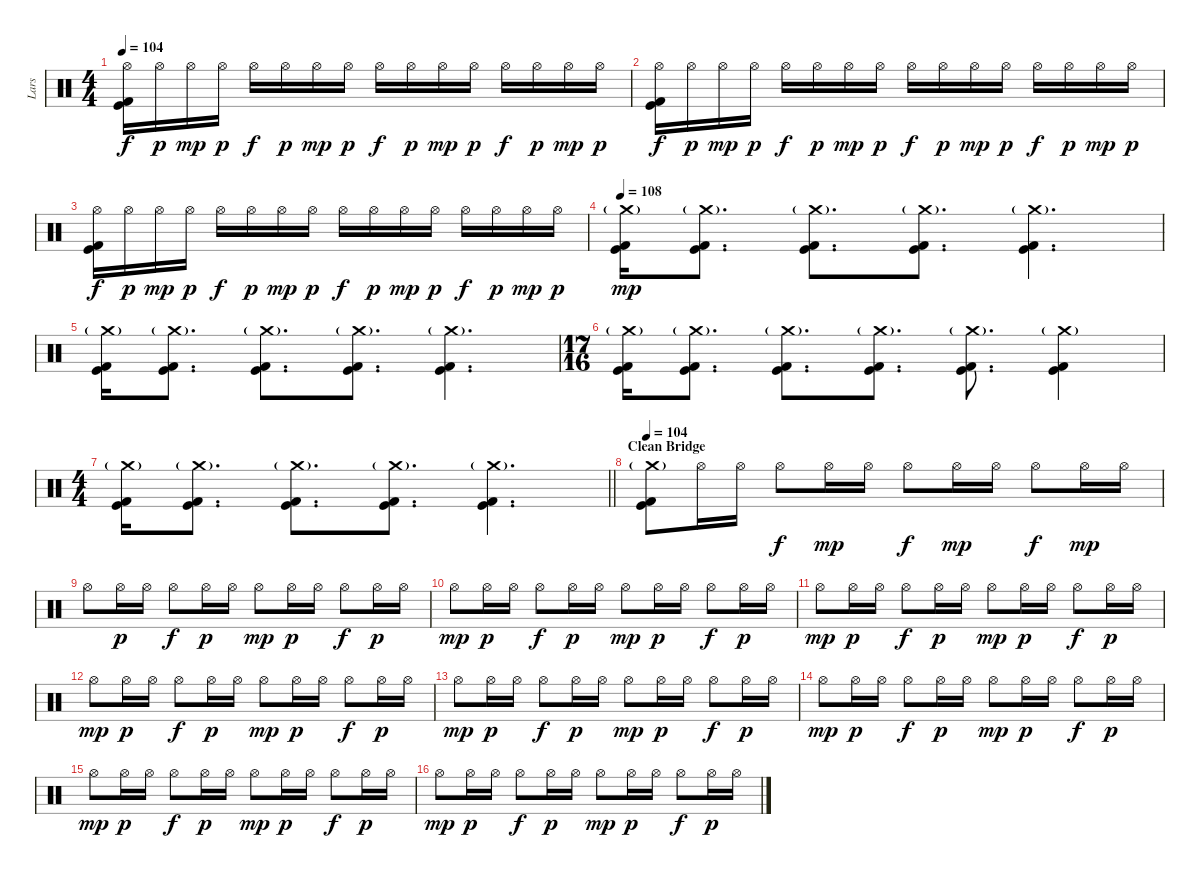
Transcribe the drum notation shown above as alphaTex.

\track ("Lars" "Lars") {instrument percussion}
\staff {score}
\articulation defaults
\ts (4 4)
\tempo 104
\clef neutral
\ks c
("Hi-Hat (open)" "Kick (hit)" "Kick (hit) 2").16{dy f} "Hi-Hat (open)".16{dy p} "Hi-Hat (open)".16{dy mp} "Hi-Hat (open)".16{dy p} "Hi-Hat (open)".16{dy f} "Hi-Hat (open)".16{dy p} "Hi-Hat (open)".16{dy mp} "Hi-Hat (open)".16{dy p} "Hi-Hat (open)".16{dy f} "Hi-Hat (open)".16{dy p} "Hi-Hat (open)".16{dy mp} "Hi-Hat (open)".16{dy p} "Hi-Hat (open)".16{dy f} "Hi-Hat (open)".16{dy p} "Hi-Hat (open)".16{dy mp} "Hi-Hat (open)".16{dy p} |
("Hi-Hat (open)" "Kick (hit)" "Kick (hit) 2").16{dy f} "Hi-Hat (open)".16{dy p} "Hi-Hat (open)".16{dy mp} "Hi-Hat (open)".16{dy p} "Hi-Hat (open)".16{dy f} "Hi-Hat (open)".16{dy p} "Hi-Hat (open)".16{dy mp} "Hi-Hat (open)".16{dy p} "Hi-Hat (open)".16{dy f} "Hi-Hat (open)".16{dy p} "Hi-Hat (open)".16{dy mp} "Hi-Hat (open)".16{dy p} "Hi-Hat (open)".16{dy f} "Hi-Hat (open)".16{dy p} "Hi-Hat (open)".16{dy mp} "Hi-Hat (open)".16{dy p} |
("Hi-Hat (open)" "Kick (hit)" "Kick (hit) 2").16{dy f} "Hi-Hat (open)".16{dy p} "Hi-Hat (open)".16{dy mp} "Hi-Hat (open)".16{dy p} "Hi-Hat (open)".16{dy f} "Hi-Hat (open)".16{dy p} "Hi-Hat (open)".16{dy mp} "Hi-Hat (open)".16{dy p} "Hi-Hat (open)".16{dy f} "Hi-Hat (open)".16{dy p} "Hi-Hat (open)".16{dy mp} "Hi-Hat (open)".16{dy p} "Hi-Hat (open)".16{dy f} "Hi-Hat (open)".16{dy p} "Hi-Hat (open)".16{dy mp} "Hi-Hat (open)".16{dy p} |
\tempo 108
("Crash medium (hit)"{g} "Kick (hit)" "Kick (hit) 2").16{dy mp} ("Crash medium (hit)"{g} "Kick (hit)" "Kick (hit) 2").8{d} ("Crash medium (hit)"{g} "Kick (hit)" "Kick (hit) 2").8{d} ("Crash medium (hit)"{g} "Kick (hit)" "Kick (hit) 2").8{d} ("Crash medium (hit)"{g} "Kick (hit)" "Kick (hit) 2").4{d} |
("Crash medium (hit)"{g} "Kick (hit)" "Kick (hit) 2").16 ("Crash medium (hit)"{g} "Kick (hit)" "Kick (hit) 2").8{d} ("Crash medium (hit)"{g} "Kick (hit)" "Kick (hit) 2").8{d} ("Crash medium (hit)"{g} "Kick (hit)" "Kick (hit) 2").8{d} ("Crash medium (hit)"{g} "Kick (hit)" "Kick (hit) 2").4{d} |
\ts (17 16)
("Crash medium (hit)"{g} "Kick (hit)" "Kick (hit) 2").16 ("Crash medium (hit)"{g} "Kick (hit)" "Kick (hit) 2").8{d} ("Crash medium (hit)"{g} "Kick (hit)" "Kick (hit) 2").8{d} ("Crash medium (hit)"{g} "Kick (hit)" "Kick (hit) 2").8{d} ("Crash medium (hit)"{g} "Kick (hit)" "Kick (hit) 2").8{d} ("Crash medium (hit)"{g} "Kick (hit)" "Kick (hit) 2").4 |
\ts (4 4)
\barLineRight lightlight
("Crash medium (hit)"{g} "Kick (hit)" "Kick (hit) 2").16 ("Crash medium (hit)"{g} "Kick (hit)" "Kick (hit) 2").8{d} ("Crash medium (hit)"{g} "Kick (hit)" "Kick (hit) 2").8{d} ("Crash medium (hit)"{g} "Kick (hit)" "Kick (hit) 2").8{d} ("Crash medium (hit)"{g} "Kick (hit)" "Kick (hit) 2").4{d} |
\section ("" "Clean Bridge")
\tempo 104
("Crash medium (hit)"{g} "Kick (hit)" "Kick (hit) 2").8 "Hi-Hat (open)".16 "Hi-Hat (open)".16 "Hi-Hat (open)".8{dy f} "Hi-Hat (open)".16{dy mp} "Hi-Hat (open)".16 "Hi-Hat (open)".8{dy f} "Hi-Hat (open)".16{dy mp} "Hi-Hat (open)".16 "Hi-Hat (open)".8{dy f} "Hi-Hat (open)".16{dy mp} "Hi-Hat (open)".16 |
"Hi-Hat (open)".8 "Hi-Hat (open)".16{dy p} "Hi-Hat (open)".16 "Hi-Hat (open)".8{dy f} "Hi-Hat (open)".16{dy p} "Hi-Hat (open)".16 "Hi-Hat (open)".8{dy mp} "Hi-Hat (open)".16{dy p} "Hi-Hat (open)".16 "Hi-Hat (open)".8{dy f} "Hi-Hat (open)".16{dy p} "Hi-Hat (open)".16 |
"Hi-Hat (open)".8{dy mp} "Hi-Hat (open)".16{dy p} "Hi-Hat (open)".16 "Hi-Hat (open)".8{dy f} "Hi-Hat (open)".16{dy p} "Hi-Hat (open)".16 "Hi-Hat (open)".8{dy mp} "Hi-Hat (open)".16{dy p} "Hi-Hat (open)".16 "Hi-Hat (open)".8{dy f} "Hi-Hat (open)".16{dy p} "Hi-Hat (open)".16 |
"Hi-Hat (open)".8{dy mp} "Hi-Hat (open)".16{dy p} "Hi-Hat (open)".16 "Hi-Hat (open)".8{dy f} "Hi-Hat (open)".16{dy p} "Hi-Hat (open)".16 "Hi-Hat (open)".8{dy mp} "Hi-Hat (open)".16{dy p} "Hi-Hat (open)".16 "Hi-Hat (open)".8{dy f} "Hi-Hat (open)".16{dy p} "Hi-Hat (open)".16 |
"Hi-Hat (open)".8{dy mp} "Hi-Hat (open)".16{dy p} "Hi-Hat (open)".16 "Hi-Hat (open)".8{dy f} "Hi-Hat (open)".16{dy p} "Hi-Hat (open)".16 "Hi-Hat (open)".8{dy mp} "Hi-Hat (open)".16{dy p} "Hi-Hat (open)".16 "Hi-Hat (open)".8{dy f} "Hi-Hat (open)".16{dy p} "Hi-Hat (open)".16 |
"Hi-Hat (open)".8{dy mp} "Hi-Hat (open)".16{dy p} "Hi-Hat (open)".16 "Hi-Hat (open)".8{dy f} "Hi-Hat (open)".16{dy p} "Hi-Hat (open)".16 "Hi-Hat (open)".8{dy mp} "Hi-Hat (open)".16{dy p} "Hi-Hat (open)".16 "Hi-Hat (open)".8{dy f} "Hi-Hat (open)".16{dy p} "Hi-Hat (open)".16 |
"Hi-Hat (open)".8{dy mp} "Hi-Hat (open)".16{dy p} "Hi-Hat (open)".16 "Hi-Hat (open)".8{dy f} "Hi-Hat (open)".16{dy p} "Hi-Hat (open)".16 "Hi-Hat (open)".8{dy mp} "Hi-Hat (open)".16{dy p} "Hi-Hat (open)".16 "Hi-Hat (open)".8{dy f} "Hi-Hat (open)".16{dy p} "Hi-Hat (open)".16 |
"Hi-Hat (open)".8{dy mp} "Hi-Hat (open)".16{dy p} "Hi-Hat (open)".16 "Hi-Hat (open)".8{dy f} "Hi-Hat (open)".16{dy p} "Hi-Hat (open)".16 "Hi-Hat (open)".8{dy mp} "Hi-Hat (open)".16{dy p} "Hi-Hat (open)".16 "Hi-Hat (open)".8{dy f} "Hi-Hat (open)".16{dy p} "Hi-Hat (open)".16 |
"Hi-Hat (open)".8{dy mp} "Hi-Hat (open)".16{dy p} "Hi-Hat (open)".16 "Hi-Hat (open)".8{dy f} "Hi-Hat (open)".16{dy p} "Hi-Hat (open)".16 "Hi-Hat (open)".8{dy mp} "Hi-Hat (open)".16{dy p} "Hi-Hat (open)".16 "Hi-Hat (open)".8{dy f} "Hi-Hat (open)".16{dy p} "Hi-Hat (open)".16
